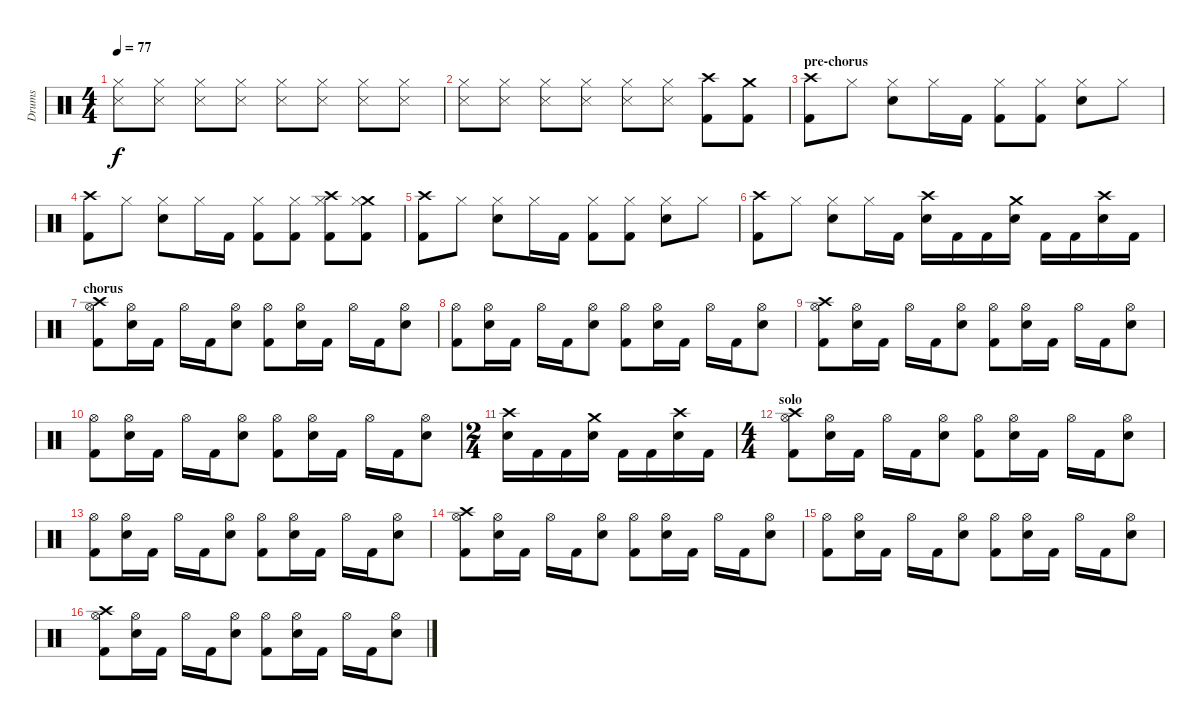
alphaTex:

\track ("Drums" "Drums") {instrument percussion}
\staff {score}
\articulation defaults
\ts (4 4)
\tempo 77
\clef neutral
\ks c
("Snare (side stick) 3" "Hi-Hat (closed)").8{dy f} ("Snare (side stick) 3" "Hi-Hat (closed)").8 ("Snare (side stick) 3" "Hi-Hat (closed)").8 ("Snare (side stick) 3" "Hi-Hat (closed)").8 ("Snare (side stick) 3" "Hi-Hat (closed)").8 ("Snare (side stick) 3" "Hi-Hat (closed)").8 ("Snare (side stick) 3" "Hi-Hat (closed)").8 ("Snare (side stick) 3" "Hi-Hat (closed)").8 |
("Snare (side stick) 3" "Hi-Hat (closed)").8 ("Snare (side stick) 3" "Hi-Hat (closed)").8 ("Snare (side stick) 3" "Hi-Hat (closed)").8 ("Snare (side stick) 3" "Hi-Hat (closed)").8 ("Snare (side stick) 3" "Hi-Hat (closed)").8 ("Snare (side stick) 3" "Hi-Hat (closed)").8 ("Crash high (hit)" "Kick (hit) 2").8 ("Crash medium (hit)" "Kick (hit) 2").8 |
\section ("" "pre-chorus")
("Crash high (hit)" "Kick (hit) 2").8 "Hi-Hat (closed)".8 ("Hi-Hat (closed)" "Snare (hit) 2").8 "Hi-Hat (closed)".16 "Kick (hit) 2".16 ("Hi-Hat (closed)" "Kick (hit) 2").8 ("Hi-Hat (closed)" "Kick (hit) 2").8 ("Hi-Hat (closed)" "Snare (hit) 2").8 "Hi-Hat (closed)".8 |
("Crash high (hit)" "Kick (hit) 2").8 "Hi-Hat (closed)".8 ("Hi-Hat (closed)" "Snare (hit) 2").8 "Hi-Hat (closed)".16 "Kick (hit) 2".16 ("Hi-Hat (closed)" "Kick (hit) 2").8 ("Hi-Hat (closed)" "Kick (hit) 2").8 ("Crash high (hit)" "Hi-Hat (closed)" "Kick (hit) 2").8 ("Crash medium (hit)" "Hi-Hat (closed)" "Kick (hit) 2").8 |
("Crash high (hit)" "Kick (hit) 2").8 "Hi-Hat (closed)".8 ("Hi-Hat (closed)" "Snare (hit) 2").8 "Hi-Hat (closed)".16 "Kick (hit) 2".16 ("Hi-Hat (closed)" "Kick (hit) 2").8 ("Hi-Hat (closed)" "Kick (hit) 2").8 ("Hi-Hat (closed)" "Snare (hit) 2").8 "Hi-Hat (closed)".8 |
("Crash high (hit)" "Kick (hit) 2").8 "Hi-Hat (closed)".8 ("Hi-Hat (closed)" "Snare (hit) 2").8 "Hi-Hat (closed)".16 "Kick (hit) 2".16 ("Crash high (hit)" "Snare (hit) 2").16 "Kick (hit) 2".16 "Kick (hit) 2".16 ("Crash medium (hit)" "Snare (hit) 2").16 "Kick (hit) 2".16 "Kick (hit) 2".16 ("Crash high (hit)" "Snare (hit) 2").16 "Kick (hit) 2".16 |
\section ("" "chorus")
("Crash high (hit)" "Hi-Hat (open)" "Kick (hit) 2").8 ("Hi-Hat (open)" "Snare (hit) 2").16 "Kick (hit) 2".16 "Hi-Hat (open)".16 "Kick (hit) 2".16 ("Hi-Hat (open)" "Snare (hit) 2").8 ("Hi-Hat (open)" "Kick (hit) 2").8 ("Hi-Hat (open)" "Snare (hit) 2").16 "Kick (hit) 2".16 "Hi-Hat (open)".16 "Kick (hit) 2".16 ("Hi-Hat (open)" "Snare (hit) 2").8 |
("Hi-Hat (open)" "Kick (hit) 2").8 ("Hi-Hat (open)" "Snare (hit) 2").16 "Kick (hit) 2".16 "Hi-Hat (open)".16 "Kick (hit) 2".16 ("Hi-Hat (open)" "Snare (hit) 2").8 ("Hi-Hat (open)" "Kick (hit) 2").8 ("Hi-Hat (open)" "Snare (hit) 2").16 "Kick (hit) 2".16 "Hi-Hat (open)".16 "Kick (hit) 2".16 ("Hi-Hat (open)" "Snare (hit) 2").8 |
("Crash high (hit)" "Hi-Hat (open)" "Kick (hit) 2").8 ("Hi-Hat (open)" "Snare (hit) 2").16 "Kick (hit) 2".16 "Hi-Hat (open)".16 "Kick (hit) 2".16 ("Hi-Hat (open)" "Snare (hit) 2").8 ("Hi-Hat (open)" "Kick (hit) 2").8 ("Hi-Hat (open)" "Snare (hit) 2").16 "Kick (hit) 2".16 "Hi-Hat (open)".16 "Kick (hit) 2".16 ("Hi-Hat (open)" "Snare (hit) 2").8 |
("Hi-Hat (open)" "Kick (hit) 2").8 ("Hi-Hat (open)" "Snare (hit) 2").16 "Kick (hit) 2".16 "Hi-Hat (open)".16 "Kick (hit) 2".16 ("Hi-Hat (open)" "Snare (hit) 2").8 ("Hi-Hat (open)" "Kick (hit) 2").8 ("Hi-Hat (open)" "Snare (hit) 2").16 "Kick (hit) 2".16 "Hi-Hat (open)".16 "Kick (hit) 2".16 ("Hi-Hat (open)" "Snare (hit) 2").8 |
\ts (2 4)
("Crash high (hit)" "Snare (hit) 2").16 "Kick (hit) 2".16 "Kick (hit) 2".16 ("Crash medium (hit)" "Snare (hit) 2").16 "Kick (hit) 2".16 "Kick (hit) 2".16 ("Crash high (hit)" "Snare (hit) 2").16 "Kick (hit) 2".16 |
\ts (4 4)
\section ("" "solo")
("Crash high (hit)" "Hi-Hat (open)" "Kick (hit) 2").8 ("Hi-Hat (open)" "Snare (hit) 2").16 "Kick (hit) 2".16 "Hi-Hat (open)".16 "Kick (hit) 2".16 ("Hi-Hat (open)" "Snare (hit) 2").8 ("Hi-Hat (open)" "Kick (hit) 2").8 ("Hi-Hat (open)" "Snare (hit) 2").16 "Kick (hit) 2".16 "Hi-Hat (open)".16 "Kick (hit) 2".16 ("Hi-Hat (open)" "Snare (hit) 2").8 |
("Hi-Hat (open)" "Kick (hit) 2").8 ("Hi-Hat (open)" "Snare (hit) 2").16 "Kick (hit) 2".16 "Hi-Hat (open)".16 "Kick (hit) 2".16 ("Hi-Hat (open)" "Snare (hit) 2").8 ("Hi-Hat (open)" "Kick (hit) 2").8 ("Hi-Hat (open)" "Snare (hit) 2").16 "Kick (hit) 2".16 "Hi-Hat (open)".16 "Kick (hit) 2".16 ("Hi-Hat (open)" "Snare (hit) 2").8 |
("Crash high (hit)" "Hi-Hat (open)" "Kick (hit) 2").8 ("Hi-Hat (open)" "Snare (hit) 2").16 "Kick (hit) 2".16 "Hi-Hat (open)".16 "Kick (hit) 2".16 ("Hi-Hat (open)" "Snare (hit) 2").8 ("Hi-Hat (open)" "Kick (hit) 2").8 ("Hi-Hat (open)" "Snare (hit) 2").16 "Kick (hit) 2".16 "Hi-Hat (open)".16 "Kick (hit) 2".16 ("Hi-Hat (open)" "Snare (hit) 2").8 |
("Hi-Hat (open)" "Kick (hit) 2").8 ("Hi-Hat (open)" "Snare (hit) 2").16 "Kick (hit) 2".16 "Hi-Hat (open)".16 "Kick (hit) 2".16 ("Hi-Hat (open)" "Snare (hit) 2").8 ("Hi-Hat (open)" "Kick (hit) 2").8 ("Hi-Hat (open)" "Snare (hit) 2").16 "Kick (hit) 2".16 "Hi-Hat (open)".16 "Kick (hit) 2".16 ("Hi-Hat (open)" "Snare (hit) 2").8 |
("Crash high (hit)" "Hi-Hat (open)" "Kick (hit) 2").8 ("Hi-Hat (open)" "Snare (hit) 2").16 "Kick (hit) 2".16 "Hi-Hat (open)".16 "Kick (hit) 2".16 ("Hi-Hat (open)" "Snare (hit) 2").8 ("Hi-Hat (open)" "Kick (hit) 2").8 ("Hi-Hat (open)" "Snare (hit) 2").16 "Kick (hit) 2".16 "Hi-Hat (open)".16 "Kick (hit) 2".16 ("Hi-Hat (open)" "Snare (hit) 2").8
